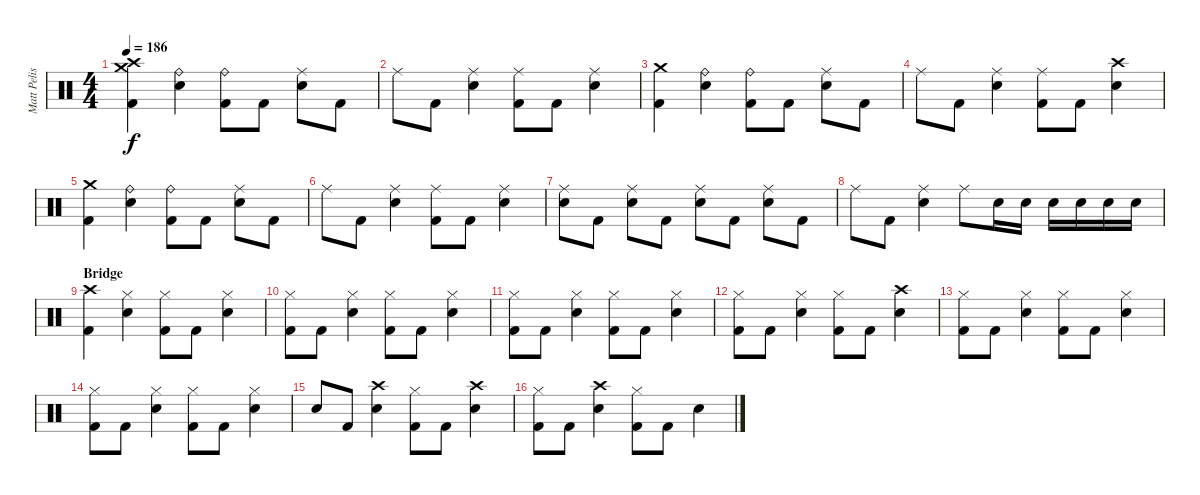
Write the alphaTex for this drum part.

\track ("Matt Pelissier" "Matt Pelis") {instrument percussion}
\staff {score}
\articulation defaults
\ts (4 4)
\tempo 186
\clef neutral
\ks c
("Crash high (hit)" "Crash medium (hit)" "Kick (hit) 2").4{dy f} ("Snare (hit) 2" "Ride (bell)").4 ("Ride (bell)" "Kick (hit) 2").8 "Kick (hit) 2".8 ("Snare (hit) 2" "Ride (middle)").8 "Kick (hit) 2".8 |
"Ride (middle)".8 "Kick (hit) 2".8 ("Snare (hit) 2" "Ride (middle)").4 ("Ride (middle)" "Kick (hit) 2").8 "Kick (hit) 2".8 ("Snare (hit) 2" "Ride (middle)").4 |
("Crash medium (hit)" "Kick (hit) 2").4 ("Snare (hit) 2" "Ride (bell)").4 ("Ride (bell)" "Kick (hit) 2").8 "Kick (hit) 2".8 ("Snare (hit) 2" "Ride (middle)").8 "Kick (hit) 2".8 |
"Ride (middle)".8 "Kick (hit) 2".8 ("Snare (hit) 2" "Ride (middle)").4 ("Ride (middle)" "Kick (hit) 2").8 "Kick (hit) 2".8 ("Snare (hit) 2" "Crash high (hit)").4 |
("Crash medium (hit)" "Kick (hit) 2").4 ("Snare (hit) 2" "Ride (bell)").4 ("Ride (bell)" "Kick (hit) 2").8 "Kick (hit) 2".8 ("Snare (hit) 2" "Ride (middle)").8 "Kick (hit) 2".8 |
"Ride (middle)".8 "Kick (hit) 2".8 ("Snare (hit) 2" "Ride (middle)").4 ("Ride (middle)" "Kick (hit) 2").8 "Kick (hit) 2".8 ("Snare (hit) 2" "Ride (middle)").4 |
("Ride (middle)" "Snare (hit) 2").8 "Kick (hit) 2".8 ("Ride (middle)" "Snare (hit) 2").8 "Kick (hit) 2".8 ("Ride (middle)" "Snare (hit) 2").8 "Kick (hit) 2".8 ("Ride (middle)" "Snare (hit) 2").8 "Kick (hit) 2".8 |
"Ride (middle)".8 "Kick (hit) 2".8 ("Ride (middle)" "Snare (hit) 2").4 "Ride (middle)".8 "Snare (hit) 2".16 "Snare (hit) 2".16 "Snare (hit) 2".16 "Snare (hit) 2".16 "Snare (hit) 2".16 "Snare (hit) 2".16 |
\section ("" "Bridge")
("Crash high (hit)" "Kick (hit) 2").4 ("Snare (hit) 2" "Hi-Hat (closed)").4 ("Hi-Hat (closed)" "Kick (hit) 2").8 "Kick (hit) 2".8 ("Snare (hit) 2" "Hi-Hat (closed)").4 |
("Hi-Hat (closed)" "Kick (hit) 2").8 "Kick (hit) 2".8 ("Snare (hit) 2" "Hi-Hat (closed)").4 ("Hi-Hat (closed)" "Kick (hit) 2").8 "Kick (hit) 2".8 ("Snare (hit) 2" "Hi-Hat (closed)").4 |
("Hi-Hat (closed)" "Kick (hit) 2").8 "Kick (hit) 2".8 ("Snare (hit) 2" "Hi-Hat (closed)").4 ("Hi-Hat (closed)" "Kick (hit) 2").8 "Kick (hit) 2".8 ("Snare (hit) 2" "Hi-Hat (closed)").4 |
("Hi-Hat (closed)" "Kick (hit) 2").8 "Kick (hit) 2".8 ("Snare (hit) 2" "Hi-Hat (closed)").4 ("Hi-Hat (closed)" "Kick (hit) 2").8 "Kick (hit) 2".8 ("Snare (hit) 2" "Crash high (hit)").4 |
("Hi-Hat (closed)" "Kick (hit) 2").8 "Kick (hit) 2".8 ("Snare (hit) 2" "Hi-Hat (closed)").4 ("Hi-Hat (closed)" "Kick (hit) 2").8 "Kick (hit) 2".8 ("Snare (hit) 2" "Hi-Hat (closed)").4 |
("Hi-Hat (closed)" "Kick (hit) 2").8 "Kick (hit) 2".8 ("Snare (hit) 2" "Hi-Hat (closed)").4 ("Hi-Hat (closed)" "Kick (hit) 2").8 "Kick (hit) 2".8 ("Snare (hit) 2" "Hi-Hat (closed)").4 |
"Snare (hit) 2".8 "Kick (hit) 2".8 ("Snare (hit) 2" "Crash high (hit)").4 ("Hi-Hat (closed)" "Kick (hit) 2").8 "Kick (hit) 2".8 ("Snare (hit) 2" "Crash high (hit)").4 |
("Hi-Hat (closed)" "Kick (hit) 2").8 "Kick (hit) 2".8 ("Snare (hit) 2" "Crash high (hit)").4 ("Hi-Hat (closed)" "Kick (hit) 2").8 "Kick (hit) 2".8 "Snare (hit) 2".4
